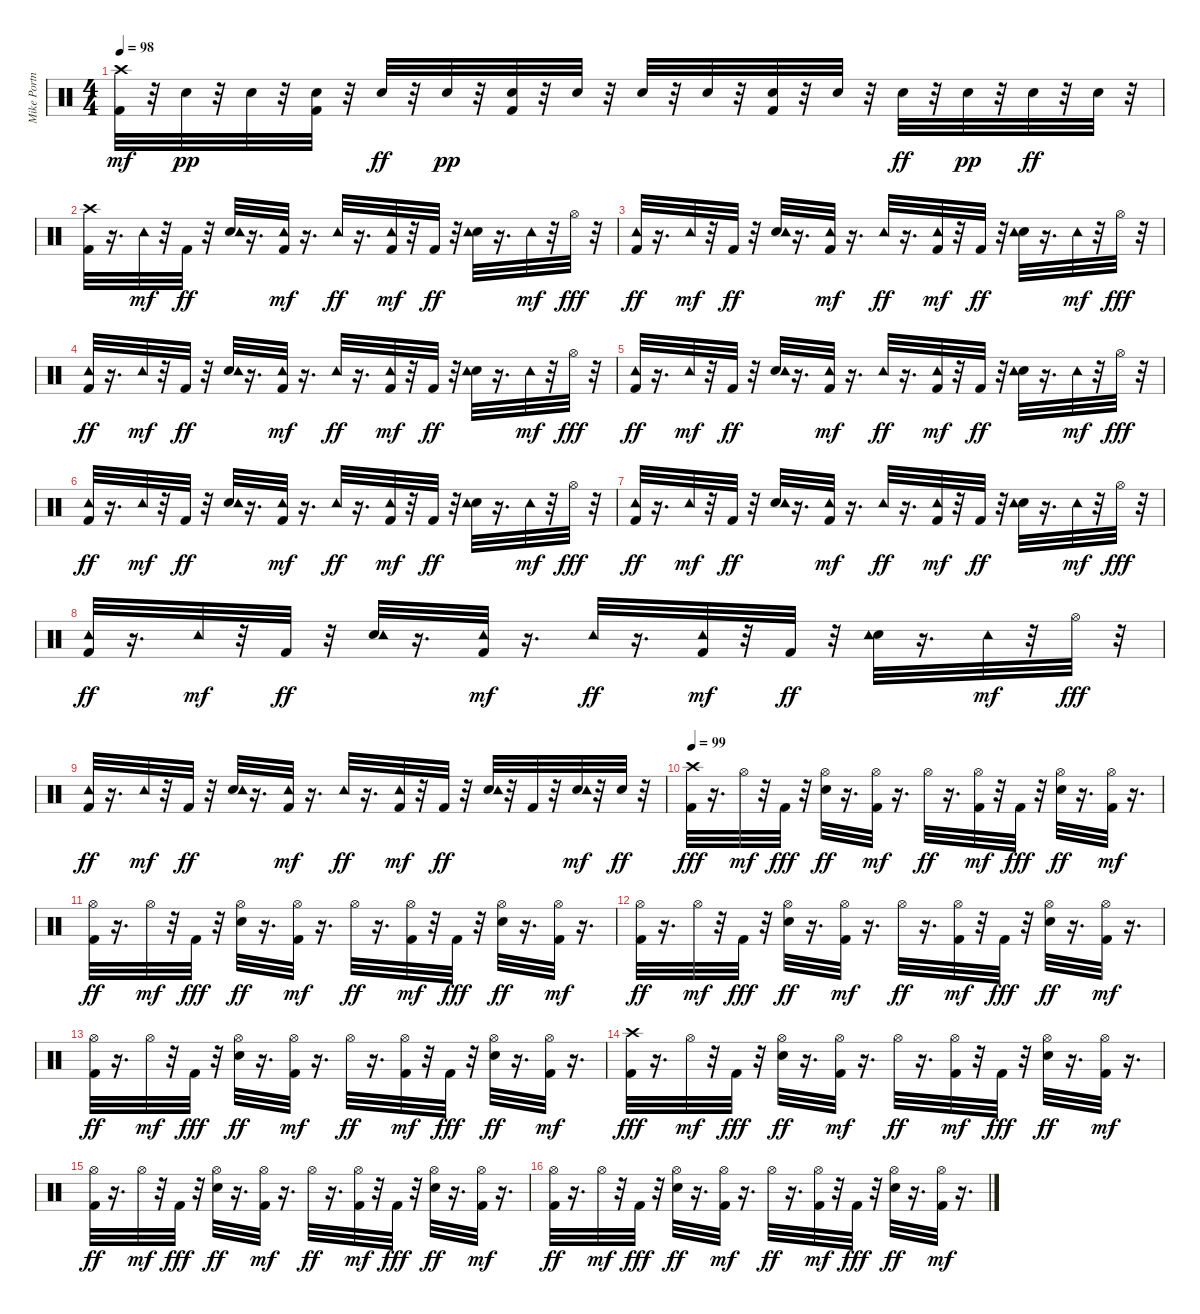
\track ("Mike Portnoy" "Mike Portn") {instrument percussion}
\staff {score}
\articulation defaults
\ts (4 4)
\tempo 98
\clef neutral
\ks c
("Kick (hit) 2" "Crash high (hit)").32{dy mf} r.32 "Snare (hit) 2".32{dy pp} r.32 "Snare (hit) 2".32 r.32 ("Kick (hit) 2" "Snare (hit) 2").32 r.32 "Snare (hit) 2".32{dy ff} r.32 "Snare (hit) 2".32{dy pp} r.32 ("Kick (hit) 2" "Snare (hit) 2").32 r.32 "Snare (hit) 2".32 r.32 "Snare (hit) 2".32 r.32 "Snare (hit) 2".32 r.32 ("Kick (hit) 2" "Snare (hit) 2").32 r.32 "Snare (hit) 2".32 r.32 "Snare (hit) 2".32{dy ff} r.32 "Snare (hit) 2".32{dy pp} r.32 "Snare (hit) 2".32{dy ff} r.32 "Snare (hit) 2".32 r.32 |
("Kick (hit) 2" "Crash high (hit)").32 r.16{d} "Tambourine (hit)".32{dy mf} r.32 "Kick (hit) 2".32{dy ff} r.32 ("Snare (hit) 2" "Tambourine (hit)").32 r.16{d} ("Kick (hit) 2" "Tambourine (hit)").32{dy mf} r.16{d} "Tambourine (hit)".32{dy ff} r.16{d} ("Kick (hit) 2" "Tambourine (hit)").32{dy mf} r.32 "Kick (hit) 2".32{dy ff} r.32 ("Snare (hit) 2" "Tambourine (hit)").32 r.16{d} "Tambourine (hit)".32{dy mf} r.32 "Hi-Hat (open)".32{dy fff} r.32 |
("Kick (hit) 2" "Tambourine (hit)").32{dy ff} r.16{d} "Tambourine (hit)".32{dy mf} r.32 "Kick (hit) 2".32{dy ff} r.32 ("Snare (hit) 2" "Tambourine (hit)").32 r.16{d} ("Kick (hit) 2" "Tambourine (hit)").32{dy mf} r.16{d} "Tambourine (hit)".32{dy ff} r.16{d} ("Kick (hit) 2" "Tambourine (hit)").32{dy mf} r.32 "Kick (hit) 2".32{dy ff} r.32 ("Snare (hit) 2" "Tambourine (hit)").32 r.16{d} "Tambourine (hit)".32{dy mf} r.32 "Hi-Hat (open)".32{dy fff} r.32 |
("Kick (hit) 2" "Tambourine (hit)").32{dy ff} r.16{d} "Tambourine (hit)".32{dy mf} r.32 "Kick (hit) 2".32{dy ff} r.32 ("Snare (hit) 2" "Tambourine (hit)").32 r.16{d} ("Kick (hit) 2" "Tambourine (hit)").32{dy mf} r.16{d} "Tambourine (hit)".32{dy ff} r.16{d} ("Kick (hit) 2" "Tambourine (hit)").32{dy mf} r.32 "Kick (hit) 2".32{dy ff} r.32 ("Snare (hit) 2" "Tambourine (hit)").32 r.16{d} "Tambourine (hit)".32{dy mf} r.32 "Hi-Hat (open)".32{dy fff} r.32 |
("Kick (hit) 2" "Tambourine (hit)").32{dy ff} r.16{d} "Tambourine (hit)".32{dy mf} r.32 "Kick (hit) 2".32{dy ff} r.32 ("Snare (hit) 2" "Tambourine (hit)").32 r.16{d} ("Kick (hit) 2" "Tambourine (hit)").32{dy mf} r.16{d} "Tambourine (hit)".32{dy ff} r.16{d} ("Kick (hit) 2" "Tambourine (hit)").32{dy mf} r.32 "Kick (hit) 2".32{dy ff} r.32 ("Snare (hit) 2" "Tambourine (hit)").32 r.16{d} "Tambourine (hit)".32{dy mf} r.32 "Hi-Hat (open)".32{dy fff} r.32 |
("Kick (hit) 2" "Tambourine (hit)").32{dy ff} r.16{d} "Tambourine (hit)".32{dy mf} r.32 "Kick (hit) 2".32{dy ff} r.32 ("Snare (hit) 2" "Tambourine (hit)").32 r.16{d} ("Kick (hit) 2" "Tambourine (hit)").32{dy mf} r.16{d} "Tambourine (hit)".32{dy ff} r.16{d} ("Kick (hit) 2" "Tambourine (hit)").32{dy mf} r.32 "Kick (hit) 2".32{dy ff} r.32 ("Snare (hit) 2" "Tambourine (hit)").32 r.16{d} "Tambourine (hit)".32{dy mf} r.32 "Hi-Hat (open)".32{dy fff} r.32 |
("Kick (hit) 2" "Tambourine (hit)").32{dy ff} r.16{d} "Tambourine (hit)".32{dy mf} r.32 "Kick (hit) 2".32{dy ff} r.32 ("Snare (hit) 2" "Tambourine (hit)").32 r.16{d} ("Kick (hit) 2" "Tambourine (hit)").32{dy mf} r.16{d} "Tambourine (hit)".32{dy ff} r.16{d} ("Kick (hit) 2" "Tambourine (hit)").32{dy mf} r.32 "Kick (hit) 2".32{dy ff} r.32 ("Snare (hit) 2" "Tambourine (hit)").32 r.16{d} "Tambourine (hit)".32{dy mf} r.32 "Hi-Hat (open)".32{dy fff} r.32 |
("Kick (hit) 2" "Tambourine (hit)").32{dy ff} r.16{d} "Tambourine (hit)".32{dy mf} r.32 "Kick (hit) 2".32{dy ff} r.32 ("Snare (hit) 2" "Tambourine (hit)").32 r.16{d} ("Kick (hit) 2" "Tambourine (hit)").32{dy mf} r.16{d} "Tambourine (hit)".32{dy ff} r.16{d} ("Kick (hit) 2" "Tambourine (hit)").32{dy mf} r.32 "Kick (hit) 2".32{dy ff} r.32 ("Snare (hit) 2" "Tambourine (hit)").32 r.16{d} "Tambourine (hit)".32{dy mf} r.32 "Hi-Hat (open)".32{dy fff} r.32 |
("Kick (hit) 2" "Tambourine (hit)").32{dy ff} r.16{d} "Tambourine (hit)".32{dy mf} r.32 "Kick (hit) 2".32{dy ff} r.32 ("Snare (hit) 2" "Tambourine (hit)").32 r.16{d} ("Kick (hit) 2" "Tambourine (hit)").32{dy mf} r.16{d} "Tambourine (hit)".32{dy ff} r.16{d} ("Kick (hit) 2" "Tambourine (hit)").32{dy mf} r.32 "Kick (hit) 2".32{dy ff} r.32 ("Snare (hit) 2" "Tambourine (hit)").32 r.32 "Kick (hit) 2".32 r.32 ("Snare (hit) 2" "Tambourine (hit)").32{dy mf} r.32 "Snare (hit) 2".32{dy ff} r.32 |
\tempo 99
("Kick (hit) 2" "Crash high (hit)").32{dy fff} r.16{d} "Hi-Hat (open)".32{dy mf} r.32 "Kick (hit) 2".32{dy fff} r.32 ("Snare (hit) 2" "Hi-Hat (open)").32{dy ff} r.16{d} ("Kick (hit) 2" "Hi-Hat (open)").32{dy mf} r.16{d} "Hi-Hat (open)".32{dy ff} r.16{d} ("Kick (hit) 2" "Hi-Hat (open)").32{dy mf} r.32 "Kick (hit) 2".32{dy fff} r.32 ("Snare (hit) 2" "Hi-Hat (open)").32{dy ff} r.16{d} ("Kick (hit) 2" "Hi-Hat (open)").32{dy mf} r.16{d} |
("Kick (hit) 2" "Hi-Hat (open)").32{dy ff} r.16{d} "Hi-Hat (open)".32{dy mf} r.32 "Kick (hit) 2".32{dy fff} r.32 ("Snare (hit) 2" "Hi-Hat (open)").32{dy ff} r.16{d} ("Kick (hit) 2" "Hi-Hat (open)").32{dy mf} r.16{d} "Hi-Hat (open)".32{dy ff} r.16{d} ("Kick (hit) 2" "Hi-Hat (open)").32{dy mf} r.32 "Kick (hit) 2".32{dy fff} r.32 ("Snare (hit) 2" "Hi-Hat (open)").32{dy ff} r.16{d} ("Kick (hit) 2" "Hi-Hat (open)").32{dy mf} r.16{d} |
("Kick (hit) 2" "Hi-Hat (open)").32{dy ff} r.16{d} "Hi-Hat (open)".32{dy mf} r.32 "Kick (hit) 2".32{dy fff} r.32 ("Snare (hit) 2" "Hi-Hat (open)").32{dy ff} r.16{d} ("Kick (hit) 2" "Hi-Hat (open)").32{dy mf} r.16{d} "Hi-Hat (open)".32{dy ff} r.16{d} ("Kick (hit) 2" "Hi-Hat (open)").32{dy mf} r.32 "Kick (hit) 2".32{dy fff} r.32 ("Snare (hit) 2" "Hi-Hat (open)").32{dy ff} r.16{d} ("Kick (hit) 2" "Hi-Hat (open)").32{dy mf} r.16{d} |
("Kick (hit) 2" "Hi-Hat (open)").32{dy ff} r.16{d} "Hi-Hat (open)".32{dy mf} r.32 "Kick (hit) 2".32{dy fff} r.32 ("Snare (hit) 2" "Hi-Hat (open)").32{dy ff} r.16{d} ("Kick (hit) 2" "Hi-Hat (open)").32{dy mf} r.16{d} "Hi-Hat (open)".32{dy ff} r.16{d} ("Kick (hit) 2" "Hi-Hat (open)").32{dy mf} r.32 "Kick (hit) 2".32{dy fff} r.32 ("Snare (hit) 2" "Hi-Hat (open)").32{dy ff} r.16{d} ("Kick (hit) 2" "Hi-Hat (open)").32{dy mf} r.16{d} |
("Kick (hit) 2" "Crash high (hit)").32{dy fff} r.16{d} "Hi-Hat (open)".32{dy mf} r.32 "Kick (hit) 2".32{dy fff} r.32 ("Snare (hit) 2" "Hi-Hat (open)").32{dy ff} r.16{d} ("Kick (hit) 2" "Hi-Hat (open)").32{dy mf} r.16{d} "Hi-Hat (open)".32{dy ff} r.16{d} ("Kick (hit) 2" "Hi-Hat (open)").32{dy mf} r.32 "Kick (hit) 2".32{dy fff} r.32 ("Snare (hit) 2" "Hi-Hat (open)").32{dy ff} r.16{d} ("Kick (hit) 2" "Hi-Hat (open)").32{dy mf} r.16{d} |
("Kick (hit) 2" "Hi-Hat (open)").32{dy ff} r.16{d} "Hi-Hat (open)".32{dy mf} r.32 "Kick (hit) 2".32{dy fff} r.32 ("Snare (hit) 2" "Hi-Hat (open)").32{dy ff} r.16{d} ("Kick (hit) 2" "Hi-Hat (open)").32{dy mf} r.16{d} "Hi-Hat (open)".32{dy ff} r.16{d} ("Kick (hit) 2" "Hi-Hat (open)").32{dy mf} r.32 "Kick (hit) 2".32{dy fff} r.32 ("Snare (hit) 2" "Hi-Hat (open)").32{dy ff} r.16{d} ("Kick (hit) 2" "Hi-Hat (open)").32{dy mf} r.16{d} |
("Kick (hit) 2" "Hi-Hat (open)").32{dy ff} r.16{d} "Hi-Hat (open)".32{dy mf} r.32 "Kick (hit) 2".32{dy fff} r.32 ("Snare (hit) 2" "Hi-Hat (open)").32{dy ff} r.16{d} ("Kick (hit) 2" "Hi-Hat (open)").32{dy mf} r.16{d} "Hi-Hat (open)".32{dy ff} r.16{d} ("Kick (hit) 2" "Hi-Hat (open)").32{dy mf} r.32 "Kick (hit) 2".32{dy fff} r.32 ("Snare (hit) 2" "Hi-Hat (open)").32{dy ff} r.16{d} ("Kick (hit) 2" "Hi-Hat (open)").32{dy mf} r.16{d}
